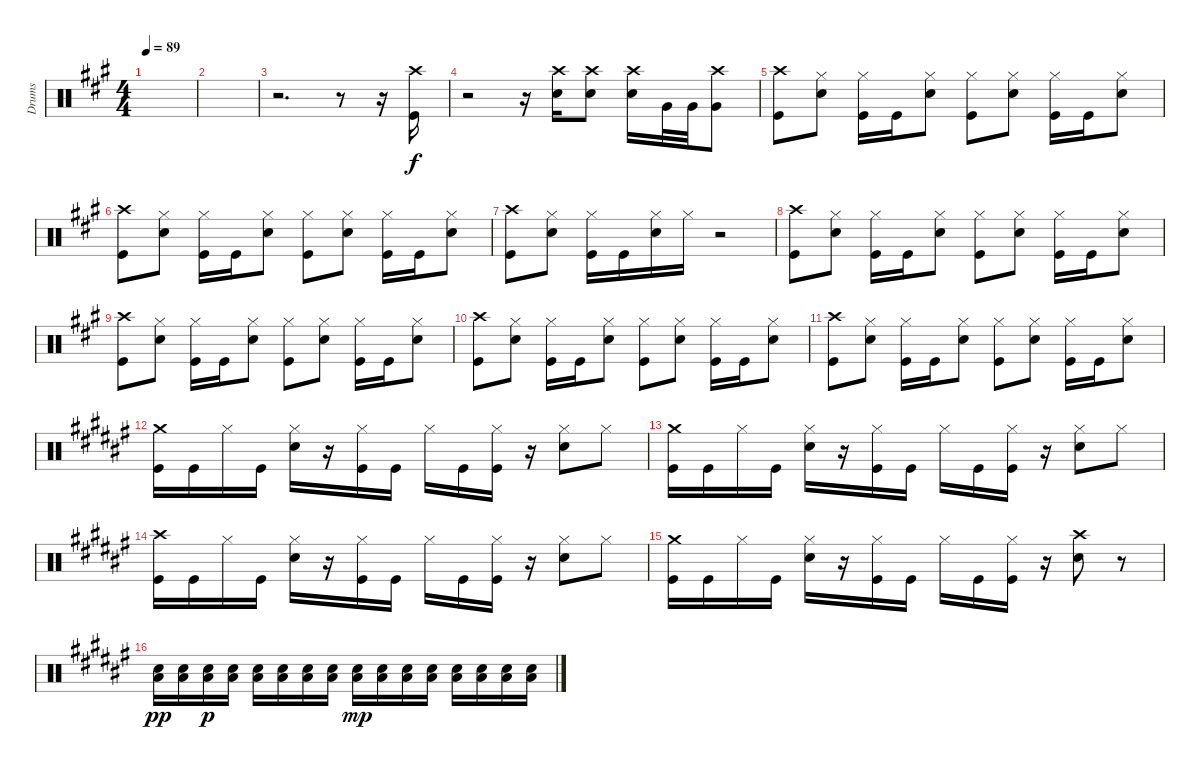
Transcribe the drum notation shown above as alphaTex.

\track ("Drums" "Drums") {instrument percussion}
\staff {score}
\articulation defaults
\ts (4 4)
\tempo 89
\clef neutral
\ks f#minor
|
|
r.2{d} r.8 r.16 ("Crash high (hit)" "Kick (hit)").16 |
r.2 r.16 ("Crash high (hit)" "Snare (hit) 2").16 ("Crash high (hit)" "Snare (hit) 2").8 ("Crash high (hit)" "Snare (hit) 2").16 "Very Low Tom (hit)".32 "Very Low Tom (hit)".32 ("Crash high (hit)" "Very Low Tom (hit)").8 |
("Crash high (hit)" "Kick (hit)").8 ("Hi-Hat (closed)" "Snare (hit) 2").8 ("Hi-Hat (closed)" "Kick (hit)").16 "Kick (hit)".16 ("Hi-Hat (closed)" "Snare (hit) 2").8 ("Hi-Hat (closed)" "Kick (hit)").8 ("Hi-Hat (closed)" "Snare (hit) 2").8 ("Hi-Hat (closed)" "Kick (hit)").16 "Kick (hit)".16 ("Hi-Hat (closed)" "Snare (hit) 2").8 |
("Crash high (hit)" "Kick (hit)").8 ("Hi-Hat (closed)" "Snare (hit) 2").8 ("Hi-Hat (closed)" "Kick (hit)").16 "Kick (hit)".16 ("Hi-Hat (closed)" "Snare (hit) 2").8 ("Hi-Hat (closed)" "Kick (hit)").8 ("Hi-Hat (closed)" "Snare (hit) 2").8 ("Hi-Hat (closed)" "Kick (hit)").16 "Kick (hit)".16 ("Hi-Hat (closed)" "Snare (hit) 2").8 |
("Crash high (hit)" "Kick (hit)").8 ("Hi-Hat (closed)" "Snare (hit) 2").8 ("Hi-Hat (closed)" "Kick (hit)").16 "Kick (hit)".16 ("Hi-Hat (closed)" "Snare (hit) 2").16 "Hi-Hat (closed)".16 r.2 |
("Crash high (hit)" "Kick (hit)").8 ("Hi-Hat (closed)" "Snare (hit) 2").8 ("Hi-Hat (closed)" "Kick (hit)").16 "Kick (hit)".16 ("Hi-Hat (closed)" "Snare (hit) 2").8 ("Hi-Hat (closed)" "Kick (hit)").8 ("Hi-Hat (closed)" "Snare (hit) 2").8 ("Hi-Hat (closed)" "Kick (hit)").16 "Kick (hit)".16 ("Hi-Hat (closed)" "Snare (hit) 2").8 |
("Crash high (hit)" "Kick (hit)").8 ("Hi-Hat (closed)" "Snare (hit) 2").8 ("Hi-Hat (closed)" "Kick (hit)").16 "Kick (hit)".16 ("Hi-Hat (closed)" "Snare (hit) 2").8 ("Hi-Hat (closed)" "Kick (hit)").8 ("Hi-Hat (closed)" "Snare (hit) 2").8 ("Hi-Hat (closed)" "Kick (hit)").16 "Kick (hit)".16 ("Hi-Hat (closed)" "Snare (hit) 2").8 |
("Crash high (hit)" "Kick (hit)").8 ("Hi-Hat (closed)" "Snare (hit) 2").8 ("Hi-Hat (closed)" "Kick (hit)").16 "Kick (hit)".16 ("Hi-Hat (closed)" "Snare (hit) 2").8 ("Hi-Hat (closed)" "Kick (hit)").8 ("Hi-Hat (closed)" "Snare (hit) 2").8 ("Hi-Hat (closed)" "Kick (hit)").16 "Kick (hit)".16 ("Hi-Hat (closed)" "Snare (hit) 2").8 |
("Crash high (hit)" "Kick (hit)").8 ("Hi-Hat (closed)" "Snare (hit) 2").8 ("Hi-Hat (closed)" "Kick (hit)").16 "Kick (hit)".16 ("Hi-Hat (closed)" "Snare (hit) 2").8 ("Hi-Hat (closed)" "Kick (hit)").8 ("Hi-Hat (closed)" "Snare (hit) 2").8 ("Hi-Hat (closed)" "Kick (hit)").16 "Kick (hit)".16 ("Hi-Hat (closed)" "Snare (hit) 2").8 |
\ks f#
("Crash medium (hit)" "Kick (hit)").16 "Kick (hit)".16 "Hi-Hat (closed)".16 "Kick (hit)".16 ("Hi-Hat (closed)" "Snare (hit) 2").16 r.16 ("Hi-Hat (closed)" "Kick (hit)").16 "Kick (hit)".16 "Hi-Hat (closed)".16 "Kick (hit)".16 ("Hi-Hat (closed)" "Kick (hit)").16 r.16 ("Hi-Hat (closed)" "Snare (hit) 2").8 "Hi-Hat (closed)".8 |
("Crash medium (hit)" "Kick (hit)").16 "Kick (hit)".16 "Hi-Hat (closed)".16 "Kick (hit)".16 ("Hi-Hat (closed)" "Snare (hit) 2").16 r.16 ("Hi-Hat (closed)" "Kick (hit)").16 "Kick (hit)".16 "Hi-Hat (closed)".16 "Kick (hit)".16 ("Hi-Hat (closed)" "Kick (hit)").16 r.16 ("Hi-Hat (closed)" "Snare (hit) 2").8 "Hi-Hat (closed)".8 |
("Crash high (hit)" "Kick (hit)").16 "Kick (hit)".16 "Hi-Hat (closed)".16 "Kick (hit)".16 ("Hi-Hat (closed)" "Snare (hit) 2").16 r.16 ("Hi-Hat (closed)" "Kick (hit)").16 "Kick (hit)".16 "Hi-Hat (closed)".16 "Kick (hit)".16 ("Hi-Hat (closed)" "Kick (hit)").16 r.16 ("Hi-Hat (closed)" "Snare (hit) 2").8 "Hi-Hat (closed)".8 |
("Crash medium (hit)" "Kick (hit)").16 "Kick (hit)".16 "Hi-Hat (closed)".16 "Kick (hit)".16 ("Hi-Hat (closed)" "Snare (hit) 2").16 r.16 ("Hi-Hat (closed)" "Kick (hit)").16 "Kick (hit)".16 "Hi-Hat (closed)".16 "Kick (hit)".16 ("Hi-Hat (closed)" "Kick (hit)").16 r.16 ("Crash high (hit)" "Snare (hit) 2").8 r.8 |
("Snare (hit) 2" "Low Floor Tom (hit)").16{dy pp} ("Snare (hit) 2" "Low Floor Tom (hit)").16 ("Snare (hit) 2" "Low Floor Tom (hit)").16{dy p} ("Snare (hit) 2" "Low Floor Tom (hit)").16 ("Snare (hit) 2" "Low Floor Tom (hit)").16 ("Snare (hit) 2" "Low Floor Tom (hit)").16 ("Snare (hit) 2" "Low Floor Tom (hit)").16 ("Snare (hit) 2" "Low Floor Tom (hit)").16 ("Snare (hit) 2" "Low Floor Tom (hit)").16{dy mp} ("Snare (hit) 2" "Low Floor Tom (hit)").16 ("Snare (hit) 2" "Low Floor Tom (hit)").16 ("Snare (hit) 2" "Low Floor Tom (hit)").16 ("Snare (hit) 2" "Low Floor Tom (hit)").16 ("Snare (hit) 2" "Low Floor Tom (hit)").16 ("Snare (hit) 2" "Low Floor Tom (hit)").16 ("Snare (hit) 2" "Low Floor Tom (hit)").16
